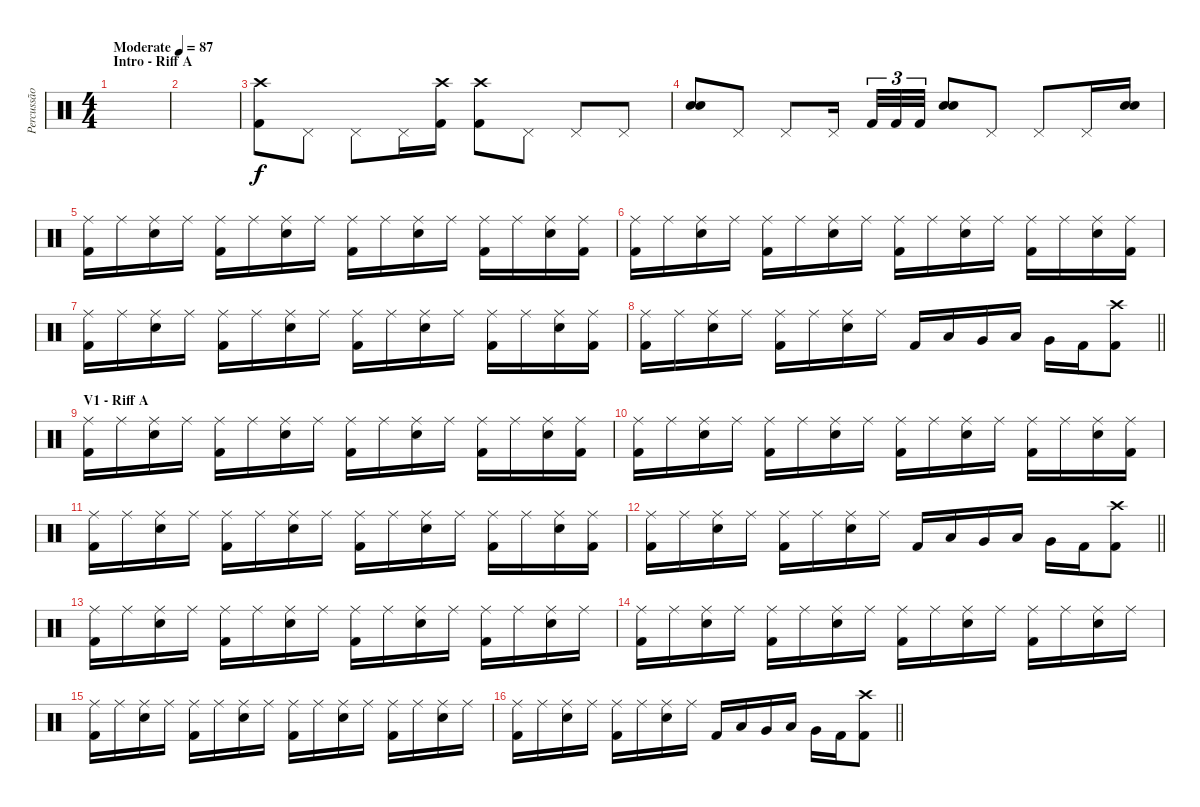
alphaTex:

\track ("Percussão" "Percussão") {instrument percussion}
\staff {score}
\articulation defaults
\ts (4 4)
\section ("" "Intro - Riff A")
\tempo (87 "Moderate")
\clef neutral
\ks c
|
|
("Crash high (hit)" "Kick (hit) 2").8 "Pedal Hi-Hat (hit)".8 "Pedal Hi-Hat (hit)".8 "Pedal Hi-Hat (hit)".16 ("Crash high (hit)" "Kick (hit) 2").16 ("Crash high (hit)" "Kick (hit) 2").8 "Pedal Hi-Hat (hit)".8 "Pedal Hi-Hat (hit)".8 "Pedal Hi-Hat (hit)".8 |
("Electric Snare (hit)" "Electric Snare (hit)").8 "Pedal Hi-Hat (hit)".8 "Pedal Hi-Hat (hit)".8 "Pedal Hi-Hat (hit)".16{beam splitsecondary} "Kick (hit) 2".32{tu (3 2)} "Kick (hit) 2".32{tu (3 2)} "Kick (hit) 2".32{tu (3 2)} ("Electric Snare (hit)" "Electric Snare (hit)").8 "Pedal Hi-Hat (hit)".8 "Pedal Hi-Hat (hit)".8 "Pedal Hi-Hat (hit)".16 ("Electric Snare (hit)" "Electric Snare (hit)").16 |
("Ride (middle)" "Kick (hit) 2").16 "Ride (middle)".16 ("Ride (middle)" "Electric Snare (hit)").16 "Ride (middle)".16 ("Ride (middle)" "Kick (hit) 2").16 "Ride (middle)".16 ("Ride (middle)" "Electric Snare (hit)").16 "Ride (middle)".16 ("Ride (middle)" "Kick (hit) 2").16 "Ride (middle)".16 ("Ride (middle)" "Electric Snare (hit)").16 "Ride (middle)".16 ("Ride (middle)" "Kick (hit) 2").16 "Ride (middle)".16 ("Ride (middle)" "Electric Snare (hit)").16 ("Ride (middle)" "Kick (hit) 2").16 |
("Ride (middle)" "Kick (hit) 2").16 "Ride (middle)".16 ("Ride (middle)" "Electric Snare (hit)").16 "Ride (middle)".16 ("Ride (middle)" "Kick (hit) 2").16 "Ride (middle)".16 ("Ride (middle)" "Electric Snare (hit)").16 "Ride (middle)".16 ("Ride (middle)" "Kick (hit) 2").16 "Ride (middle)".16 ("Ride (middle)" "Electric Snare (hit)").16 "Ride (middle)".16 ("Ride (middle)" "Kick (hit) 2").16 "Ride (middle)".16 ("Ride (middle)" "Electric Snare (hit)").16 ("Ride (middle)" "Kick (hit) 2").16 |
("Ride (middle)" "Kick (hit) 2").16 "Ride (middle)".16 ("Ride (middle)" "Electric Snare (hit)").16 "Ride (middle)".16 ("Ride (middle)" "Kick (hit) 2").16 "Ride (middle)".16 ("Ride (middle)" "Electric Snare (hit)").16 "Ride (middle)".16 ("Ride (middle)" "Kick (hit) 2").16 "Ride (middle)".16 ("Ride (middle)" "Electric Snare (hit)").16 "Ride (middle)".16 ("Ride (middle)" "Kick (hit) 2").16 "Ride (middle)".16 ("Ride (middle)" "Electric Snare (hit)").16 ("Ride (middle)" "Kick (hit) 2").16 |
\barLineRight lightlight
("Ride (middle)" "Kick (hit) 2").16 "Ride (middle)".16 ("Ride (middle)" "Electric Snare (hit)").16 "Ride (middle)".16 ("Ride (middle)" "Kick (hit) 2").16 "Ride (middle)".16 ("Ride (middle)" "Electric Snare (hit)").16 "Ride (middle)".16 "Kick (hit) 2".16 "Low Tom (hit)".16 "Very Low Tom (hit)".16 "Low Floor Tom (hit)".16 "Very Low Tom (hit)".16 "Kick (hit) 2".16 ("Crash high (hit)" "Kick (hit) 2").8 |
\section ("" "V1 - Riff A")
("Ride (middle)" "Kick (hit) 2").16 "Ride (middle)".16 ("Ride (middle)" "Electric Snare (hit)").16 "Ride (middle)".16 ("Ride (middle)" "Kick (hit) 2").16 "Ride (middle)".16 ("Ride (middle)" "Electric Snare (hit)").16 "Ride (middle)".16 ("Ride (middle)" "Kick (hit) 2").16 "Ride (middle)".16 ("Ride (middle)" "Electric Snare (hit)").16 "Ride (middle)".16 ("Ride (middle)" "Kick (hit) 2").16 "Ride (middle)".16 ("Ride (middle)" "Electric Snare (hit)").16 ("Ride (middle)" "Kick (hit) 2").16 |
("Ride (middle)" "Kick (hit) 2").16 "Ride (middle)".16 ("Ride (middle)" "Electric Snare (hit)").16 "Ride (middle)".16 ("Ride (middle)" "Kick (hit) 2").16 "Ride (middle)".16 ("Ride (middle)" "Electric Snare (hit)").16 "Ride (middle)".16 ("Ride (middle)" "Kick (hit) 2").16 "Ride (middle)".16 ("Ride (middle)" "Electric Snare (hit)").16 "Ride (middle)".16 ("Ride (middle)" "Kick (hit) 2").16 "Ride (middle)".16 ("Ride (middle)" "Electric Snare (hit)").16 ("Ride (middle)" "Kick (hit) 2").16 |
("Ride (middle)" "Kick (hit) 2").16 "Ride (middle)".16 ("Ride (middle)" "Electric Snare (hit)").16 "Ride (middle)".16 ("Ride (middle)" "Kick (hit) 2").16 "Ride (middle)".16 ("Ride (middle)" "Electric Snare (hit)").16 "Ride (middle)".16 ("Ride (middle)" "Kick (hit) 2").16 "Ride (middle)".16 ("Ride (middle)" "Electric Snare (hit)").16 "Ride (middle)".16 ("Ride (middle)" "Kick (hit) 2").16 "Ride (middle)".16 ("Ride (middle)" "Electric Snare (hit)").16 ("Ride (middle)" "Kick (hit) 2").16 |
\barLineRight lightlight
("Ride (middle)" "Kick (hit) 2").16 "Ride (middle)".16 ("Ride (middle)" "Electric Snare (hit)").16 "Ride (middle)".16 ("Ride (middle)" "Kick (hit) 2").16 "Ride (middle)".16 ("Ride (middle)" "Electric Snare (hit)").16 "Ride (middle)".16 "Kick (hit) 2".16 "Low Tom (hit)".16 "Very Low Tom (hit)".16 "Low Floor Tom (hit)".16 "Very Low Tom (hit)".16 "Kick (hit) 2".16 ("Crash high (hit)" "Kick (hit) 2").8 |
("Ride (middle)" "Kick (hit) 2").16 "Ride (middle)".16 ("Ride (middle)" "Electric Snare (hit)").16 "Ride (middle)".16 ("Ride (middle)" "Kick (hit) 2").16 "Ride (middle)".16 ("Ride (middle)" "Electric Snare (hit)").16 "Ride (middle)".16 ("Ride (middle)" "Kick (hit) 2").16 "Ride (middle)".16 ("Ride (middle)" "Electric Snare (hit)").16 "Ride (middle)".16 ("Ride (middle)" "Kick (hit) 2").16 "Ride (middle)".16 ("Ride (middle)" "Electric Snare (hit)").16 "Ride (middle)".16 |
("Ride (middle)" "Kick (hit) 2").16 "Ride (middle)".16 ("Ride (middle)" "Electric Snare (hit)").16 "Ride (middle)".16 ("Ride (middle)" "Kick (hit) 2").16 "Ride (middle)".16 ("Ride (middle)" "Electric Snare (hit)").16 "Ride (middle)".16 ("Ride (middle)" "Kick (hit) 2").16 "Ride (middle)".16 ("Ride (middle)" "Electric Snare (hit)").16 "Ride (middle)".16 ("Ride (middle)" "Kick (hit) 2").16 "Ride (middle)".16 ("Ride (middle)" "Electric Snare (hit)").16 "Ride (middle)".16 |
("Ride (middle)" "Kick (hit) 2").16 "Ride (middle)".16 ("Ride (middle)" "Electric Snare (hit)").16 "Ride (middle)".16 ("Ride (middle)" "Kick (hit) 2").16 "Ride (middle)".16 ("Ride (middle)" "Electric Snare (hit)").16 "Ride (middle)".16 ("Ride (middle)" "Kick (hit) 2").16 "Ride (middle)".16 ("Ride (middle)" "Electric Snare (hit)").16 "Ride (middle)".16 ("Ride (middle)" "Kick (hit) 2").16 "Ride (middle)".16 ("Ride (middle)" "Electric Snare (hit)").16 "Ride (middle)".16 |
\barLineRight lightlight
("Ride (middle)" "Kick (hit) 2").16 "Ride (middle)".16 ("Ride (middle)" "Electric Snare (hit)").16 "Ride (middle)".16 ("Ride (middle)" "Kick (hit) 2").16 "Ride (middle)".16 ("Ride (middle)" "Electric Snare (hit)").16 "Ride (middle)".16 "Kick (hit) 2".16 "Low Tom (hit)".16 "Very Low Tom (hit)".16 "Low Floor Tom (hit)".16 "Very Low Tom (hit)".16 "Kick (hit) 2".16 ("Crash high (hit)" "Kick (hit) 2").8
